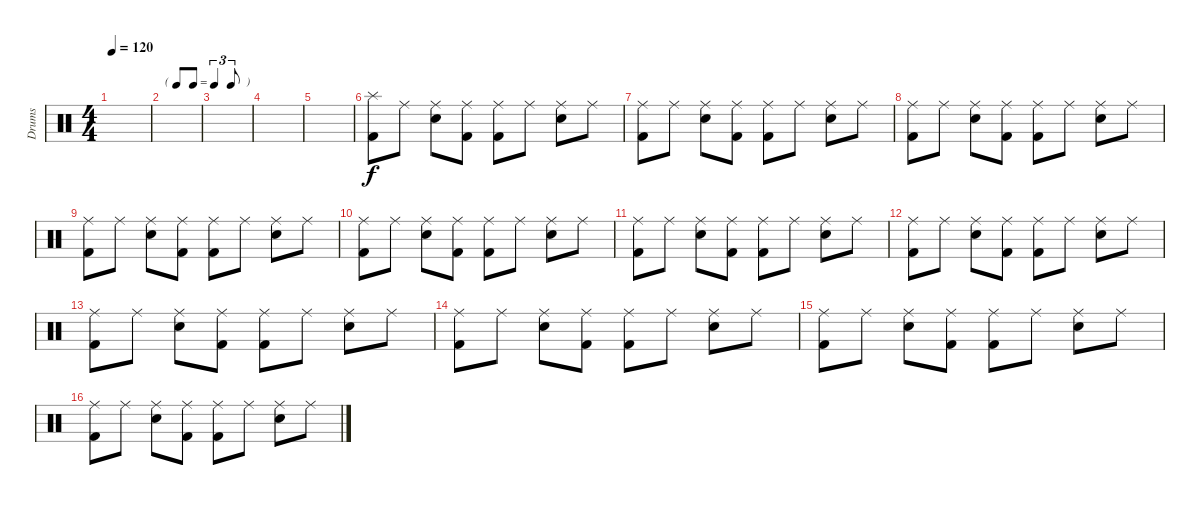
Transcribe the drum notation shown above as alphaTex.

\track ("Drums" "Drums") {instrument percussion}
\staff {score}
\articulation defaults
\ts (4 4)
\tempo 120
\clef neutral
\ks c
|
\tf triplet8th
|
|
|
|
("Splash (hit)" "Kick (hit) 2").8 "Ride (middle)".8 ("Ride (middle)" "Electric Snare (hit)").8 ("Ride (middle)" "Kick (hit) 2").8 ("Ride (middle)" "Kick (hit) 2").8 "Ride (middle)".8 ("Ride (middle)" "Electric Snare (hit)").8 "Ride (middle)".8 |
("Ride (middle)" "Kick (hit) 2").8 "Ride (middle)".8 ("Ride (middle)" "Electric Snare (hit)").8 ("Ride (middle)" "Kick (hit) 2").8 ("Ride (middle)" "Kick (hit) 2").8 "Ride (middle)".8 ("Ride (middle)" "Electric Snare (hit)").8 "Ride (middle)".8 |
("Ride (middle)" "Kick (hit) 2").8 "Ride (middle)".8 ("Ride (middle)" "Electric Snare (hit)").8 ("Ride (middle)" "Kick (hit) 2").8 ("Ride (middle)" "Kick (hit) 2").8 "Ride (middle)".8 ("Ride (middle)" "Electric Snare (hit)").8 "Ride (middle)".8 |
("Ride (middle)" "Kick (hit) 2").8 "Ride (middle)".8 ("Ride (middle)" "Electric Snare (hit)").8 ("Ride (middle)" "Kick (hit) 2").8 ("Ride (middle)" "Kick (hit) 2").8 "Ride (middle)".8 ("Ride (middle)" "Electric Snare (hit)").8 "Ride (middle)".8 |
("Ride (middle)" "Kick (hit) 2").8 "Ride (middle)".8 ("Ride (middle)" "Electric Snare (hit)").8 ("Ride (middle)" "Kick (hit) 2").8 ("Ride (middle)" "Kick (hit) 2").8 "Ride (middle)".8 ("Ride (middle)" "Electric Snare (hit)").8 "Ride (middle)".8 |
("Ride (middle)" "Kick (hit) 2").8 "Ride (middle)".8 ("Ride (middle)" "Electric Snare (hit)").8 ("Ride (middle)" "Kick (hit) 2").8 ("Ride (middle)" "Kick (hit) 2").8 "Ride (middle)".8 ("Ride (middle)" "Electric Snare (hit)").8 "Ride (middle)".8 |
("Ride (middle)" "Kick (hit) 2").8 "Ride (middle)".8 ("Ride (middle)" "Electric Snare (hit)").8 ("Ride (middle)" "Kick (hit) 2").8 ("Ride (middle)" "Kick (hit) 2").8 "Ride (middle)".8 ("Ride (middle)" "Electric Snare (hit)").8 "Ride (middle)".8 |
("Ride (middle)" "Kick (hit) 2").8 "Ride (middle)".8 ("Ride (middle)" "Electric Snare (hit)").8 ("Ride (middle)" "Kick (hit) 2").8 ("Ride (middle)" "Kick (hit) 2").8 "Ride (middle)".8 ("Ride (middle)" "Electric Snare (hit)").8 "Ride (middle)".8 |
("Ride (middle)" "Kick (hit) 2").8 "Ride (middle)".8 ("Ride (middle)" "Electric Snare (hit)").8 ("Ride (middle)" "Kick (hit) 2").8 ("Ride (middle)" "Kick (hit) 2").8 "Ride (middle)".8 ("Ride (middle)" "Electric Snare (hit)").8 "Ride (middle)".8 |
("Ride (middle)" "Kick (hit) 2").8 "Ride (middle)".8 ("Ride (middle)" "Electric Snare (hit)").8 ("Ride (middle)" "Kick (hit) 2").8 ("Ride (middle)" "Kick (hit) 2").8 "Ride (middle)".8 ("Ride (middle)" "Electric Snare (hit)").8 "Ride (middle)".8 |
("Ride (middle)" "Kick (hit) 2").8 "Ride (middle)".8 ("Ride (middle)" "Electric Snare (hit)").8 ("Ride (middle)" "Kick (hit) 2").8 ("Ride (middle)" "Kick (hit) 2").8 "Ride (middle)".8 ("Ride (middle)" "Electric Snare (hit)").8 "Ride (middle)".8
